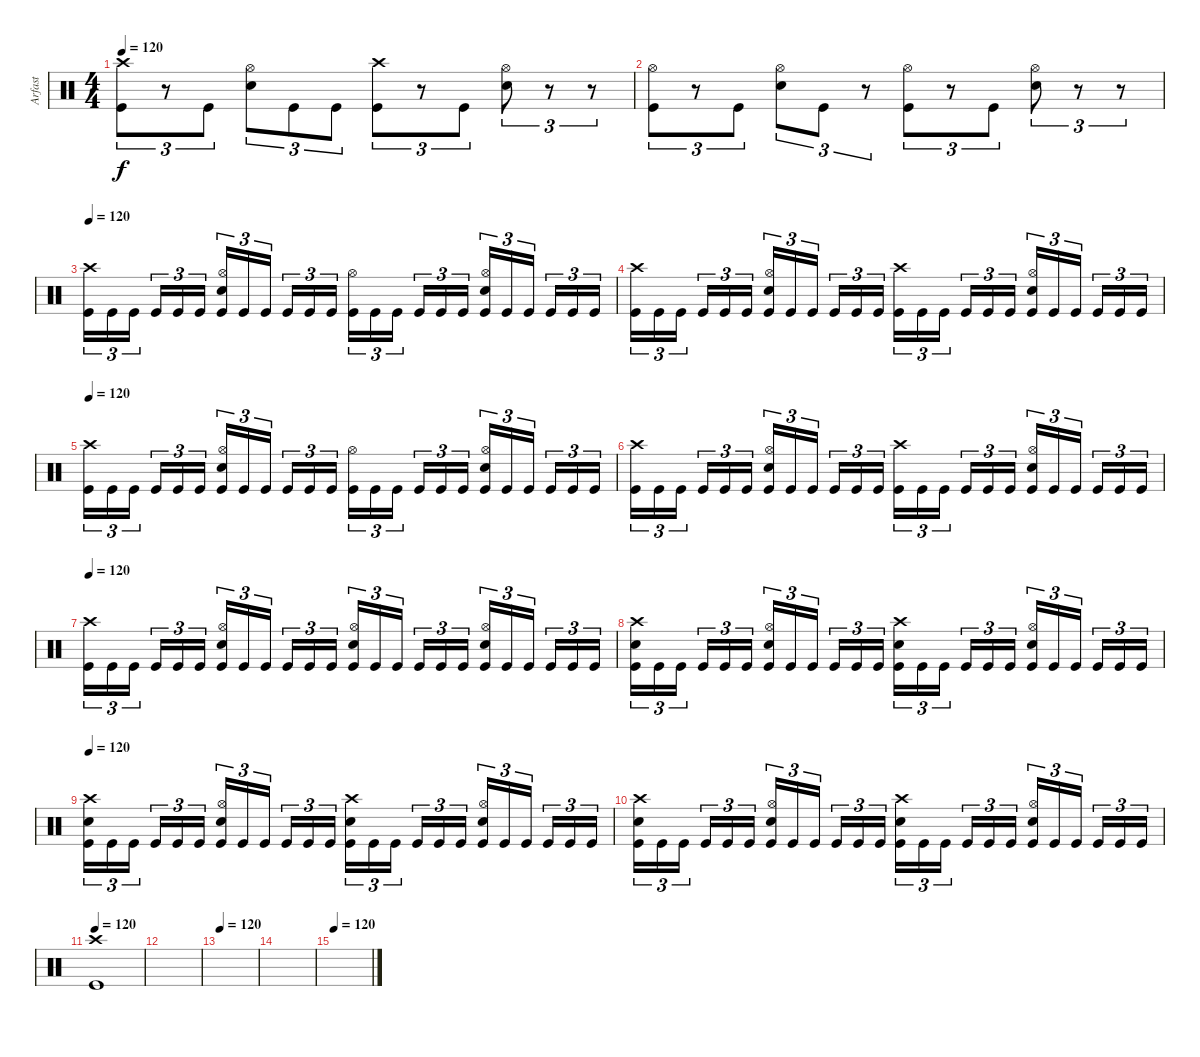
\track ("Arfast" "Arfast") {instrument percussion}
\staff {score}
\articulation defaults
\ts (4 4)
\tempo 120
\clef neutral
\ks c
("Crash high (hit)" "Kick (hit)").8{tu (3 2) dy f} r.8{tu (3 2)} "Kick (hit)".8{tu (3 2)} ("Hi-Hat (open)" "Snare (hit) 2").8{tu (3 2)} "Kick (hit)".8{tu (3 2)} "Kick (hit)".8{tu (3 2)} ("Crash high (hit)" "Kick (hit)").8{tu (3 2)} r.8{tu (3 2)} "Kick (hit)".8{tu (3 2)} ("Hi-Hat (open)" "Snare (hit) 2").8{tu (3 2)} r.8{tu (3 2)} r.8{tu (3 2)} |
("Hi-Hat (open)" "Kick (hit)").8{tu (3 2)} r.8{tu (3 2)} "Kick (hit)".8{tu (3 2)} ("Hi-Hat (open)" "Snare (hit) 2").8{tu (3 2)} "Kick (hit)".8{tu (3 2)} r.8{tu (3 2)} ("Hi-Hat (open)" "Kick (hit)").8{tu (3 2)} r.8{tu (3 2)} "Kick (hit)".8{tu (3 2)} ("Hi-Hat (open)" "Snare (hit) 2").8{tu (3 2)} r.8{tu (3 2)} r.8{tu (3 2)} |
\tempo 120
("Crash high (hit)" "Kick (hit)").16{tu (3 2)} "Kick (hit)".16{tu (3 2)} "Kick (hit)".16{tu (3 2) beam splitsecondary} "Kick (hit)".16{tu (3 2)} "Kick (hit)".16{tu (3 2)} "Kick (hit)".16{tu (3 2)} ("Hi-Hat (open)" "Snare (hit) 2" "Kick (hit)").16{tu (3 2)} "Kick (hit)".16{tu (3 2)} "Kick (hit)".16{tu (3 2) beam splitsecondary} "Kick (hit)".16{tu (3 2)} "Kick (hit)".16{tu (3 2)} "Kick (hit)".16{tu (3 2)} ("Hi-Hat (open)" "Kick (hit)").16{tu (3 2)} "Kick (hit)".16{tu (3 2)} "Kick (hit)".16{tu (3 2) beam splitsecondary} "Kick (hit)".16{tu (3 2)} "Kick (hit)".16{tu (3 2)} "Kick (hit)".16{tu (3 2)} ("Hi-Hat (open)" "Snare (hit) 2" "Kick (hit)").16{tu (3 2)} "Kick (hit)".16{tu (3 2)} "Kick (hit)".16{tu (3 2) beam splitsecondary} "Kick (hit)".16{tu (3 2)} "Kick (hit)".16{tu (3 2)} "Kick (hit)".16{tu (3 2)} |
("Crash high (hit)" "Kick (hit)").16{tu (3 2)} "Kick (hit)".16{tu (3 2)} "Kick (hit)".16{tu (3 2) beam splitsecondary} "Kick (hit)".16{tu (3 2)} "Kick (hit)".16{tu (3 2)} "Kick (hit)".16{tu (3 2)} ("Hi-Hat (open)" "Snare (hit) 2" "Kick (hit)").16{tu (3 2)} "Kick (hit)".16{tu (3 2)} "Kick (hit)".16{tu (3 2) beam splitsecondary} "Kick (hit)".16{tu (3 2)} "Kick (hit)".16{tu (3 2)} "Kick (hit)".16{tu (3 2)} ("Crash high (hit)" "Kick (hit)").16{tu (3 2)} "Kick (hit)".16{tu (3 2)} "Kick (hit)".16{tu (3 2) beam splitsecondary} "Kick (hit)".16{tu (3 2)} "Kick (hit)".16{tu (3 2)} "Kick (hit)".16{tu (3 2)} ("Hi-Hat (open)" "Snare (hit) 2" "Kick (hit)").16{tu (3 2)} "Kick (hit)".16{tu (3 2)} "Kick (hit)".16{tu (3 2) beam splitsecondary} "Kick (hit)".16{tu (3 2)} "Kick (hit)".16{tu (3 2)} "Kick (hit)".16{tu (3 2)} |
\tempo 120
("Crash high (hit)" "Kick (hit)").16{tu (3 2)} "Kick (hit)".16{tu (3 2)} "Kick (hit)".16{tu (3 2) beam splitsecondary} "Kick (hit)".16{tu (3 2)} "Kick (hit)".16{tu (3 2)} "Kick (hit)".16{tu (3 2)} ("Hi-Hat (open)" "Snare (hit) 2" "Kick (hit)").16{tu (3 2)} "Kick (hit)".16{tu (3 2)} "Kick (hit)".16{tu (3 2) beam splitsecondary} "Kick (hit)".16{tu (3 2)} "Kick (hit)".16{tu (3 2)} "Kick (hit)".16{tu (3 2)} ("Hi-Hat (open)" "Kick (hit)").16{tu (3 2)} "Kick (hit)".16{tu (3 2)} "Kick (hit)".16{tu (3 2) beam splitsecondary} "Kick (hit)".16{tu (3 2)} "Kick (hit)".16{tu (3 2)} "Kick (hit)".16{tu (3 2)} ("Hi-Hat (open)" "Snare (hit) 2" "Kick (hit)").16{tu (3 2)} "Kick (hit)".16{tu (3 2)} "Kick (hit)".16{tu (3 2) beam splitsecondary} "Kick (hit)".16{tu (3 2)} "Kick (hit)".16{tu (3 2)} "Kick (hit)".16{tu (3 2)} |
("Crash high (hit)" "Kick (hit)").16{tu (3 2)} "Kick (hit)".16{tu (3 2)} "Kick (hit)".16{tu (3 2) beam splitsecondary} "Kick (hit)".16{tu (3 2)} "Kick (hit)".16{tu (3 2)} "Kick (hit)".16{tu (3 2)} ("Hi-Hat (open)" "Snare (hit) 2" "Kick (hit)").16{tu (3 2)} "Kick (hit)".16{tu (3 2)} "Kick (hit)".16{tu (3 2) beam splitsecondary} "Kick (hit)".16{tu (3 2)} "Kick (hit)".16{tu (3 2)} "Kick (hit)".16{tu (3 2)} ("Crash high (hit)" "Kick (hit)").16{tu (3 2)} "Kick (hit)".16{tu (3 2)} "Kick (hit)".16{tu (3 2) beam splitsecondary} "Kick (hit)".16{tu (3 2)} "Kick (hit)".16{tu (3 2)} "Kick (hit)".16{tu (3 2)} ("Hi-Hat (open)" "Snare (hit) 2" "Kick (hit)").16{tu (3 2)} "Kick (hit)".16{tu (3 2)} "Kick (hit)".16{tu (3 2) beam splitsecondary} "Kick (hit)".16{tu (3 2)} "Kick (hit)".16{tu (3 2)} "Kick (hit)".16{tu (3 2)} |
\tempo 120
("Crash high (hit)" "Kick (hit)").16{tu (3 2)} "Kick (hit)".16{tu (3 2)} "Kick (hit)".16{tu (3 2) beam splitsecondary} "Kick (hit)".16{tu (3 2)} "Kick (hit)".16{tu (3 2)} "Kick (hit)".16{tu (3 2)} ("Hi-Hat (open)" "Snare (hit) 2" "Kick (hit)").16{tu (3 2)} "Kick (hit)".16{tu (3 2)} "Kick (hit)".16{tu (3 2) beam splitsecondary} "Kick (hit)".16{tu (3 2)} "Kick (hit)".16{tu (3 2)} "Kick (hit)".16{tu (3 2)} ("Hi-Hat (open)" "Snare (hit) 2" "Kick (hit)").16{tu (3 2)} "Kick (hit)".16{tu (3 2)} "Kick (hit)".16{tu (3 2) beam splitsecondary} "Kick (hit)".16{tu (3 2)} "Kick (hit)".16{tu (3 2)} "Kick (hit)".16{tu (3 2)} ("Hi-Hat (open)" "Snare (hit) 2" "Kick (hit)").16{tu (3 2)} "Kick (hit)".16{tu (3 2)} "Kick (hit)".16{tu (3 2) beam splitsecondary} "Kick (hit)".16{tu (3 2)} "Kick (hit)".16{tu (3 2)} "Kick (hit)".16{tu (3 2)} |
("Crash high (hit)" "Snare (hit) 2" "Kick (hit)").16{tu (3 2)} "Kick (hit)".16{tu (3 2)} "Kick (hit)".16{tu (3 2) beam splitsecondary} "Kick (hit)".16{tu (3 2)} "Kick (hit)".16{tu (3 2)} "Kick (hit)".16{tu (3 2)} ("Hi-Hat (open)" "Snare (hit) 2" "Kick (hit)").16{tu (3 2)} "Kick (hit)".16{tu (3 2)} "Kick (hit)".16{tu (3 2) beam splitsecondary} "Kick (hit)".16{tu (3 2)} "Kick (hit)".16{tu (3 2)} "Kick (hit)".16{tu (3 2)} ("Crash high (hit)" "Snare (hit) 2" "Kick (hit)").16{tu (3 2)} "Kick (hit)".16{tu (3 2)} "Kick (hit)".16{tu (3 2) beam splitsecondary} "Kick (hit)".16{tu (3 2)} "Kick (hit)".16{tu (3 2)} "Kick (hit)".16{tu (3 2)} ("Hi-Hat (open)" "Snare (hit) 2" "Kick (hit)").16{tu (3 2)} "Kick (hit)".16{tu (3 2)} "Kick (hit)".16{tu (3 2) beam splitsecondary} "Kick (hit)".16{tu (3 2)} "Kick (hit)".16{tu (3 2)} "Kick (hit)".16{tu (3 2)} |
\tempo 120
("Crash high (hit)" "Snare (hit) 2" "Kick (hit)").16{tu (3 2)} "Kick (hit)".16{tu (3 2)} "Kick (hit)".16{tu (3 2) beam splitsecondary} "Kick (hit)".16{tu (3 2)} "Kick (hit)".16{tu (3 2)} "Kick (hit)".16{tu (3 2)} ("Hi-Hat (open)" "Snare (hit) 2" "Kick (hit)").16{tu (3 2)} "Kick (hit)".16{tu (3 2)} "Kick (hit)".16{tu (3 2) beam splitsecondary} "Kick (hit)".16{tu (3 2)} "Kick (hit)".16{tu (3 2)} "Kick (hit)".16{tu (3 2)} ("Crash high (hit)" "Snare (hit) 2" "Kick (hit)").16{tu (3 2)} "Kick (hit)".16{tu (3 2)} "Kick (hit)".16{tu (3 2) beam splitsecondary} "Kick (hit)".16{tu (3 2)} "Kick (hit)".16{tu (3 2)} "Kick (hit)".16{tu (3 2)} ("Hi-Hat (open)" "Snare (hit) 2" "Kick (hit)").16{tu (3 2)} "Kick (hit)".16{tu (3 2)} "Kick (hit)".16{tu (3 2) beam splitsecondary} "Kick (hit)".16{tu (3 2)} "Kick (hit)".16{tu (3 2)} "Kick (hit)".16{tu (3 2)} |
("Crash high (hit)" "Snare (hit) 2" "Kick (hit)").16{tu (3 2)} "Kick (hit)".16{tu (3 2)} "Kick (hit)".16{tu (3 2) beam splitsecondary} "Kick (hit)".16{tu (3 2)} "Kick (hit)".16{tu (3 2)} "Kick (hit)".16{tu (3 2)} ("Hi-Hat (open)" "Snare (hit) 2" "Kick (hit)").16{tu (3 2)} "Kick (hit)".16{tu (3 2)} "Kick (hit)".16{tu (3 2) beam splitsecondary} "Kick (hit)".16{tu (3 2)} "Kick (hit)".16{tu (3 2)} "Kick (hit)".16{tu (3 2)} ("Crash high (hit)" "Snare (hit) 2" "Kick (hit)").16{tu (3 2)} "Kick (hit)".16{tu (3 2)} "Kick (hit)".16{tu (3 2) beam splitsecondary} "Kick (hit)".16{tu (3 2)} "Kick (hit)".16{tu (3 2)} "Kick (hit)".16{tu (3 2)} ("Hi-Hat (open)" "Snare (hit) 2" "Kick (hit)").16{tu (3 2)} "Kick (hit)".16{tu (3 2)} "Kick (hit)".16{tu (3 2) beam splitsecondary} "Kick (hit)".16{tu (3 2)} "Kick (hit)".16{tu (3 2)} "Kick (hit)".16{tu (3 2)} |
\tempo 120
("Crash high (hit)" "Kick (hit)").1 |
|
\tempo 120
|
|
\tempo 120
